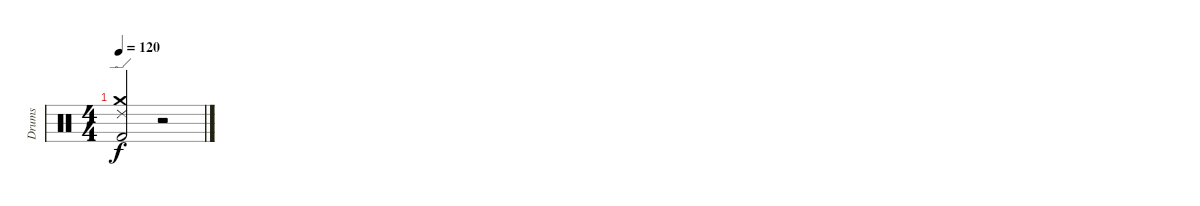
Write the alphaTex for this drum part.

\track ("Drums" "Drums") {instrument percussion}
\staff {score}
\articulation defaults
\ts (4 4)
\tempo 120
\clef neutral
\ks c
("Ride (edge) 2" "Crash medium (hit)" "Kick (hit) 2").2{dy f} r.2
